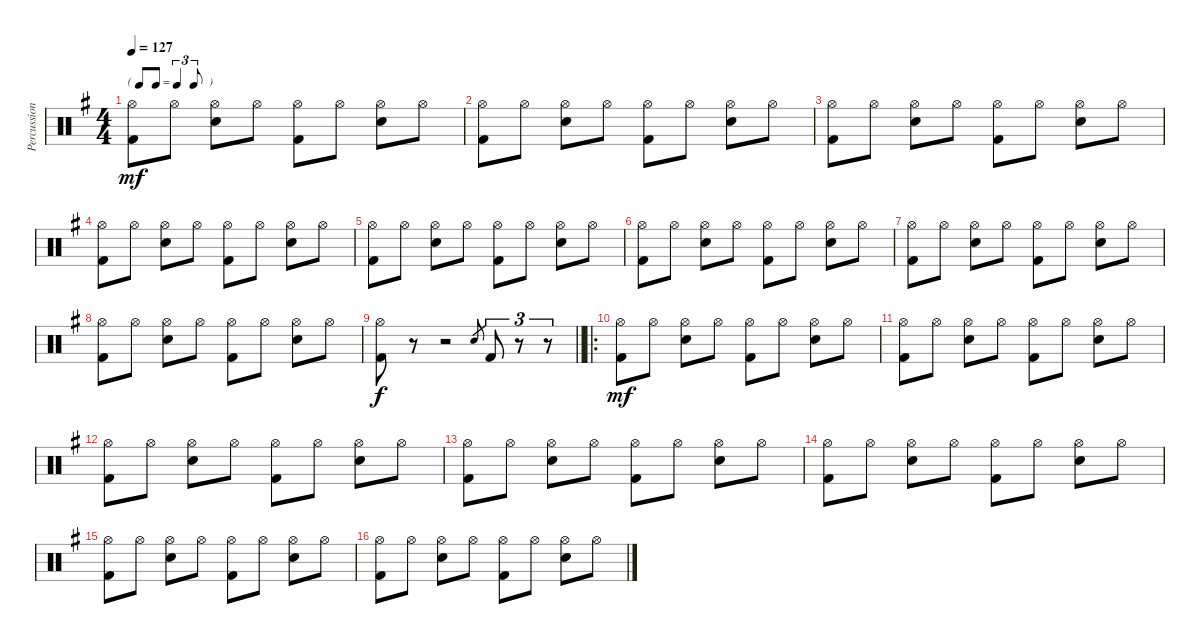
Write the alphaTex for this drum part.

\track ("Percussion" "Percussion") {instrument percussion}
\staff {score}
\articulation defaults
\ts (4 4)
\tf triplet8th
\tempo 127
\clef neutral
\ks g
("Hi-Hat (open)" "Kick (hit) 2").8{dy mf} "Hi-Hat (open)".8 ("Hi-Hat (open)" "Snare (hit) 2").8 "Hi-Hat (open)".8 ("Hi-Hat (open)" "Kick (hit) 2").8 "Hi-Hat (open)".8 ("Hi-Hat (open)" "Snare (hit) 2").8 "Hi-Hat (open)".8 |
("Hi-Hat (open)" "Kick (hit) 2").8 "Hi-Hat (open)".8 ("Hi-Hat (open)" "Snare (hit) 2").8 "Hi-Hat (open)".8 ("Hi-Hat (open)" "Kick (hit) 2").8 "Hi-Hat (open)".8 ("Hi-Hat (open)" "Snare (hit) 2").8 "Hi-Hat (open)".8 |
("Hi-Hat (open)" "Kick (hit) 2").8 "Hi-Hat (open)".8 ("Hi-Hat (open)" "Snare (hit) 2").8 "Hi-Hat (open)".8 ("Hi-Hat (open)" "Kick (hit) 2").8 "Hi-Hat (open)".8 ("Hi-Hat (open)" "Snare (hit) 2").8 "Hi-Hat (open)".8 |
("Hi-Hat (open)" "Kick (hit) 2").8 "Hi-Hat (open)".8 ("Hi-Hat (open)" "Snare (hit) 2").8 "Hi-Hat (open)".8 ("Hi-Hat (open)" "Kick (hit) 2").8 "Hi-Hat (open)".8 ("Hi-Hat (open)" "Snare (hit) 2").8 "Hi-Hat (open)".8 |
("Hi-Hat (open)" "Kick (hit) 2").8 "Hi-Hat (open)".8 ("Hi-Hat (open)" "Snare (hit) 2").8 "Hi-Hat (open)".8 ("Hi-Hat (open)" "Kick (hit) 2").8 "Hi-Hat (open)".8 ("Hi-Hat (open)" "Snare (hit) 2").8 "Hi-Hat (open)".8 |
("Hi-Hat (open)" "Kick (hit) 2").8 "Hi-Hat (open)".8 ("Hi-Hat (open)" "Snare (hit) 2").8 "Hi-Hat (open)".8 ("Hi-Hat (open)" "Kick (hit) 2").8 "Hi-Hat (open)".8 ("Hi-Hat (open)" "Snare (hit) 2").8 "Hi-Hat (open)".8 |
("Hi-Hat (open)" "Kick (hit) 2").8 "Hi-Hat (open)".8 ("Hi-Hat (open)" "Snare (hit) 2").8 "Hi-Hat (open)".8 ("Hi-Hat (open)" "Kick (hit) 2").8 "Hi-Hat (open)".8 ("Hi-Hat (open)" "Snare (hit) 2").8 "Hi-Hat (open)".8 |
("Hi-Hat (open)" "Kick (hit) 2").8 "Hi-Hat (open)".8 ("Hi-Hat (open)" "Snare (hit) 2").8 "Hi-Hat (open)".8 ("Hi-Hat (open)" "Kick (hit) 2").8 "Hi-Hat (open)".8 ("Hi-Hat (open)" "Snare (hit) 2").8 "Hi-Hat (open)".8 |
\barLineRight lightlight
("Hi-Hat (open)" "Kick (hit) 2").8{dy f} r.8 r.2 "Snare (hit) 2".8{gr} "Kick (hit) 2".8{tu (3 2)} r.8{tu (3 2)} r.8{tu (3 2)} |
\ro
("Hi-Hat (open)" "Kick (hit) 2").8{dy mf} "Hi-Hat (open)".8 ("Hi-Hat (open)" "Snare (hit) 2").8 "Hi-Hat (open)".8 ("Hi-Hat (open)" "Kick (hit) 2").8 "Hi-Hat (open)".8 ("Hi-Hat (open)" "Snare (hit) 2").8 "Hi-Hat (open)".8 |
("Hi-Hat (open)" "Kick (hit) 2").8 "Hi-Hat (open)".8 ("Hi-Hat (open)" "Snare (hit) 2").8 "Hi-Hat (open)".8 ("Hi-Hat (open)" "Kick (hit) 2").8 "Hi-Hat (open)".8 ("Hi-Hat (open)" "Snare (hit) 2").8 "Hi-Hat (open)".8 |
("Hi-Hat (open)" "Kick (hit) 2").8 "Hi-Hat (open)".8 ("Hi-Hat (open)" "Snare (hit) 2").8 "Hi-Hat (open)".8 ("Hi-Hat (open)" "Kick (hit) 2").8 "Hi-Hat (open)".8 ("Hi-Hat (open)" "Snare (hit) 2").8 "Hi-Hat (open)".8 |
("Hi-Hat (open)" "Kick (hit) 2").8 "Hi-Hat (open)".8 ("Hi-Hat (open)" "Snare (hit) 2").8 "Hi-Hat (open)".8 ("Hi-Hat (open)" "Kick (hit) 2").8 "Hi-Hat (open)".8 ("Hi-Hat (open)" "Snare (hit) 2").8 "Hi-Hat (open)".8 |
("Hi-Hat (open)" "Kick (hit) 2").8 "Hi-Hat (open)".8 ("Hi-Hat (open)" "Snare (hit) 2").8 "Hi-Hat (open)".8 ("Hi-Hat (open)" "Kick (hit) 2").8 "Hi-Hat (open)".8 ("Hi-Hat (open)" "Snare (hit) 2").8 "Hi-Hat (open)".8 |
("Hi-Hat (open)" "Kick (hit) 2").8 "Hi-Hat (open)".8 ("Hi-Hat (open)" "Snare (hit) 2").8 "Hi-Hat (open)".8 ("Hi-Hat (open)" "Kick (hit) 2").8 "Hi-Hat (open)".8 ("Hi-Hat (open)" "Snare (hit) 2").8 "Hi-Hat (open)".8 |
("Hi-Hat (open)" "Kick (hit) 2").8 "Hi-Hat (open)".8 ("Hi-Hat (open)" "Snare (hit) 2").8 "Hi-Hat (open)".8 ("Hi-Hat (open)" "Kick (hit) 2").8 "Hi-Hat (open)".8 ("Hi-Hat (open)" "Snare (hit) 2").8 "Hi-Hat (open)".8
